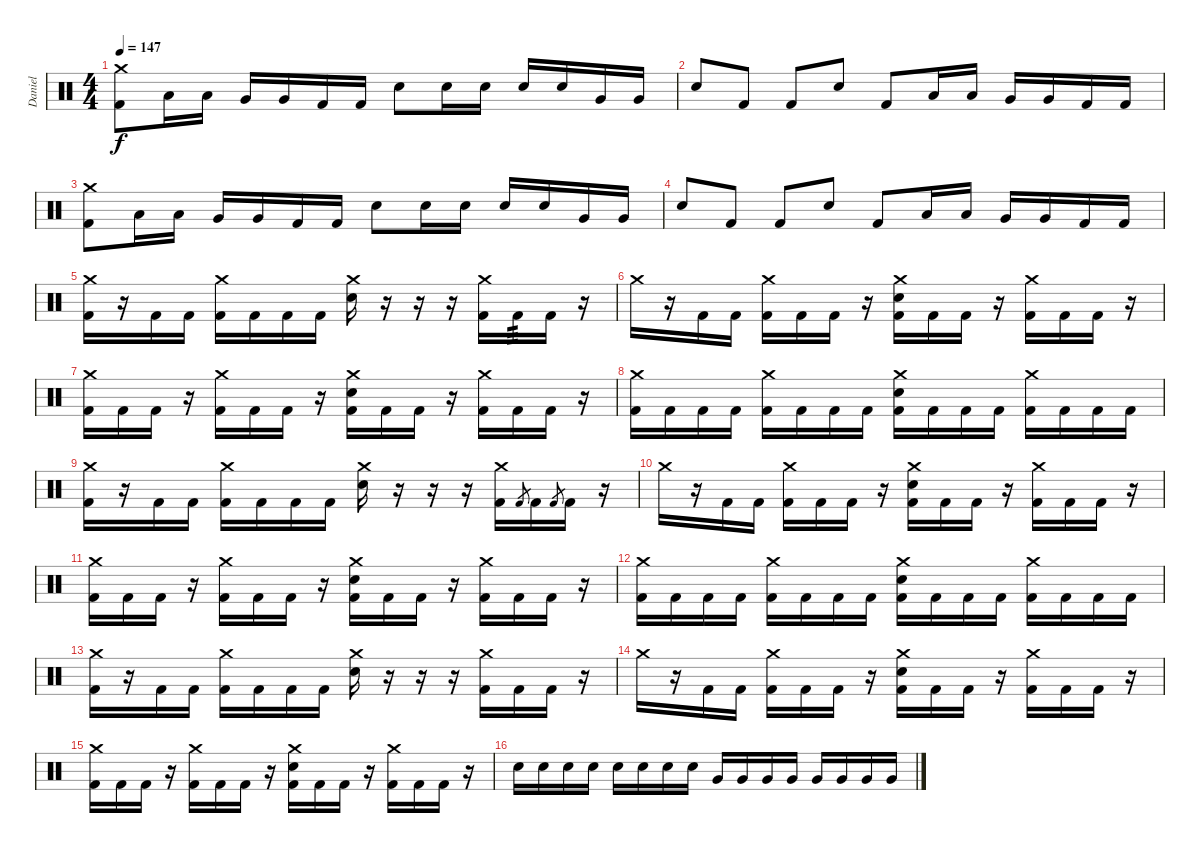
\track ("Daniel" "Daniel") {instrument percussion}
\staff {score}
\articulation defaults
\ts (4 4)
\tempo 147
\clef neutral
\ks c
("Crash medium (hit)" "Kick (hit) 2").8{dy f} "Low Tom (hit)".16 "Low Tom (hit)".16 "Very Low Tom (hit)".16 "Very Low Tom (hit)".16 "Kick (hit) 2".16 "Kick (hit) 2".16 "Electric Snare (hit)".8 "Electric Snare (hit)".16 "Electric Snare (hit)".16 "Electric Snare (hit)".16 "Electric Snare (hit)".16 "Very Low Tom (hit)".16 "Very Low Tom (hit)".16 |
"Electric Snare (hit)".8 "Kick (hit) 2".8 "Kick (hit) 2".8 "Electric Snare (hit)".8 "Kick (hit) 2".8 "Low Tom (hit)".16 "Low Tom (hit)".16 "Very Low Tom (hit)".16 "Very Low Tom (hit)".16 "Kick (hit) 2".16 "Kick (hit) 2".16 |
("Crash medium (hit)" "Kick (hit) 2").8 "Low Tom (hit)".16 "Low Tom (hit)".16 "Very Low Tom (hit)".16 "Very Low Tom (hit)".16 "Kick (hit) 2".16 "Kick (hit) 2".16 "Electric Snare (hit)".8 "Electric Snare (hit)".16 "Electric Snare (hit)".16 "Electric Snare (hit)".16 "Electric Snare (hit)".16 "Very Low Tom (hit)".16 "Very Low Tom (hit)".16 |
"Electric Snare (hit)".8 "Kick (hit) 2".8 "Kick (hit) 2".8 "Electric Snare (hit)".8 "Kick (hit) 2".8 "Low Tom (hit)".16 "Low Tom (hit)".16 "Very Low Tom (hit)".16 "Very Low Tom (hit)".16 "Kick (hit) 2".16 "Kick (hit) 2".16 |
("Crash medium (hit)" "Kick (hit) 2").16 r.16 "Kick (hit) 2".16 "Kick (hit) 2".16 ("Crash medium (hit)" "Kick (hit) 2").16 "Kick (hit) 2".16 "Kick (hit) 2".16 "Kick (hit) 2".16 ("Crash medium (hit)" "Electric Snare (hit)").16 r.16 r.16 r.16 ("Crash medium (hit)" "Kick (hit) 2").16 "Kick (hit) 2".16{tp 3} "Kick (hit) 2".16 r.16 |
"Crash medium (hit)".16 r.16 "Kick (hit) 2".16 "Kick (hit) 2".16 ("Crash medium (hit)" "Kick (hit) 2").16 "Kick (hit) 2".16 "Kick (hit) 2".16 r.16 ("Crash medium (hit)" "Electric Snare (hit)" "Kick (hit) 2").16 "Kick (hit) 2".16 "Kick (hit) 2".16 r.16 ("Crash medium (hit)" "Kick (hit) 2").16 "Kick (hit) 2".16 "Kick (hit) 2".16 r.16 |
("Crash medium (hit)" "Kick (hit) 2").16 "Kick (hit) 2".16 "Kick (hit) 2".16 r.16 ("Crash medium (hit)" "Kick (hit) 2").16 "Kick (hit) 2".16 "Kick (hit) 2".16 r.16 ("Crash medium (hit)" "Electric Snare (hit)" "Kick (hit) 2").16 "Kick (hit) 2".16 "Kick (hit) 2".16 r.16 ("Crash medium (hit)" "Kick (hit) 2").16 "Kick (hit) 2".16 "Kick (hit) 2".16 r.16 |
("Crash medium (hit)" "Kick (hit) 2").16 "Kick (hit) 2".16 "Kick (hit) 2".16 "Kick (hit) 2".16 ("Crash medium (hit)" "Kick (hit) 2").16 "Kick (hit) 2".16 "Kick (hit) 2".16 "Kick (hit) 2".16 ("Crash medium (hit)" "Electric Snare (hit)" "Kick (hit) 2").16 "Kick (hit) 2".16 "Kick (hit) 2".16 "Kick (hit) 2".16 ("Crash medium (hit)" "Kick (hit) 2").16 "Kick (hit) 2".16 "Kick (hit) 2".16 "Kick (hit) 2".16 |
("Crash medium (hit)" "Kick (hit) 2").16 r.16 "Kick (hit) 2".16 "Kick (hit) 2".16 ("Crash medium (hit)" "Kick (hit) 2").16 "Kick (hit) 2".16 "Kick (hit) 2".16 "Kick (hit) 2".16 ("Crash medium (hit)" "Electric Snare (hit)").16 r.16 r.16 r.16 ("Crash medium (hit)" "Kick (hit) 2").16 "Kick (hit) 2".8{gr} "Kick (hit) 2".16 "Kick (hit) 2".8{gr} "Kick (hit) 2".16 r.16 |
"Crash medium (hit)".16 r.16 "Kick (hit) 2".16 "Kick (hit) 2".16 ("Crash medium (hit)" "Kick (hit) 2").16 "Kick (hit) 2".16 "Kick (hit) 2".16 r.16 ("Crash medium (hit)" "Electric Snare (hit)" "Kick (hit) 2").16 "Kick (hit) 2".16 "Kick (hit) 2".16 r.16 ("Crash medium (hit)" "Kick (hit) 2").16 "Kick (hit) 2".16 "Kick (hit) 2".16 r.16 |
("Crash medium (hit)" "Kick (hit) 2").16 "Kick (hit) 2".16 "Kick (hit) 2".16 r.16 ("Crash medium (hit)" "Kick (hit) 2").16 "Kick (hit) 2".16 "Kick (hit) 2".16 r.16 ("Crash medium (hit)" "Electric Snare (hit)" "Kick (hit) 2").16 "Kick (hit) 2".16 "Kick (hit) 2".16 r.16 ("Crash medium (hit)" "Kick (hit) 2").16 "Kick (hit) 2".16 "Kick (hit) 2".16 r.16 |
("Crash medium (hit)" "Kick (hit) 2").16 "Kick (hit) 2".16 "Kick (hit) 2".16 "Kick (hit) 2".16 ("Crash medium (hit)" "Kick (hit) 2").16 "Kick (hit) 2".16 "Kick (hit) 2".16 "Kick (hit) 2".16 ("Crash medium (hit)" "Electric Snare (hit)" "Kick (hit) 2").16 "Kick (hit) 2".16 "Kick (hit) 2".16 "Kick (hit) 2".16 ("Crash medium (hit)" "Kick (hit) 2").16 "Kick (hit) 2".16 "Kick (hit) 2".16 "Kick (hit) 2".16 |
("Crash medium (hit)" "Kick (hit) 2").16 r.16 "Kick (hit) 2".16 "Kick (hit) 2".16 ("Crash medium (hit)" "Kick (hit) 2").16 "Kick (hit) 2".16 "Kick (hit) 2".16 "Kick (hit) 2".16 ("Crash medium (hit)" "Electric Snare (hit)").16 r.16 r.16 r.16 ("Crash medium (hit)" "Kick (hit) 2").16 "Kick (hit) 2".16 "Kick (hit) 2".16 r.16 |
"Crash medium (hit)".16 r.16 "Kick (hit) 2".16 "Kick (hit) 2".16 ("Crash medium (hit)" "Kick (hit) 2").16 "Kick (hit) 2".16 "Kick (hit) 2".16 r.16 ("Crash medium (hit)" "Electric Snare (hit)" "Kick (hit) 2").16 "Kick (hit) 2".16 "Kick (hit) 2".16 r.16 ("Crash medium (hit)" "Kick (hit) 2").16 "Kick (hit) 2".16 "Kick (hit) 2".16 r.16 |
("Crash medium (hit)" "Kick (hit) 2").16 "Kick (hit) 2".16 "Kick (hit) 2".16 r.16 ("Crash medium (hit)" "Kick (hit) 2").16 "Kick (hit) 2".16 "Kick (hit) 2".16 r.16 ("Crash medium (hit)" "Electric Snare (hit)" "Kick (hit) 2").16 "Kick (hit) 2".16 "Kick (hit) 2".16 r.16 ("Crash medium (hit)" "Kick (hit) 2").16 "Kick (hit) 2".16 "Kick (hit) 2".16 r.16 |
"Electric Snare (hit)".16 "Electric Snare (hit)".16 "Electric Snare (hit)".16 "Electric Snare (hit)".16 "Electric Snare (hit)".16 "Electric Snare (hit)".16 "Electric Snare (hit)".16 "Electric Snare (hit)".16 "Very Low Tom (hit)".16 "Very Low Tom (hit)".16 "Very Low Tom (hit)".16 "Very Low Tom (hit)".16 "Very Low Tom (hit)".16 "Very Low Tom (hit)".16 "Very Low Tom (hit)".16 "Very Low Tom (hit)".16
